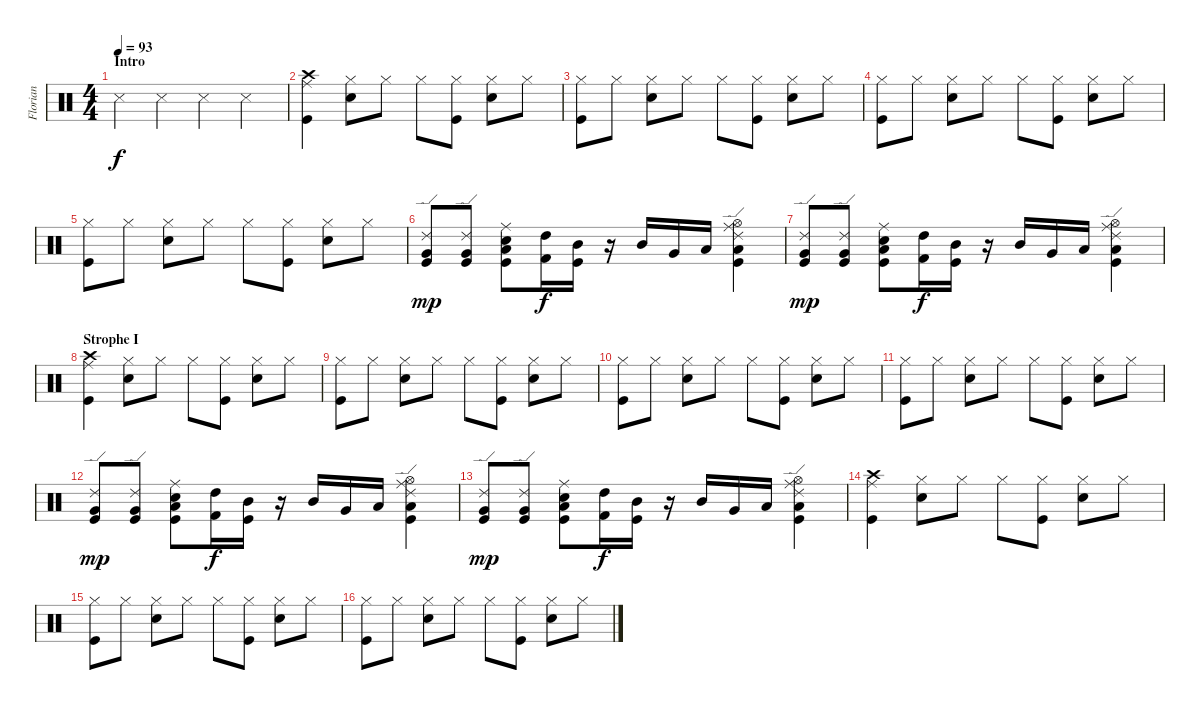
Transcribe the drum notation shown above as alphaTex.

\track ("Florian" "Florian") {instrument percussion}
\staff {score}
\articulation defaults
\ts (4 4)
\section ("" "Intro")
\tempo 93
\clef neutral
\ks c "Snare (side stick) 3".4{dy f volume 12} "Snare (side stick) 3".4 "Snare (side stick) 3".4 "Snare (side stick) 3".4
|
("Ride (middle)" "Crash high (hit)" "Kick (hit)").4 ("Hi-Hat (closed)" "Snare (hit) 2").8 "Hi-Hat (closed)".8 "Hi-Hat (closed)".8 ("Hi-Hat (closed)" "Kick (hit)").8 ("Hi-Hat (closed)" "Snare (hit) 2").8 "Hi-Hat (closed)".8 |
("Hi-Hat (closed)" "Kick (hit)").8 "Hi-Hat (closed)".8 ("Hi-Hat (closed)" "Snare (hit) 2").8 "Hi-Hat (closed)".8 "Hi-Hat (closed)".8 ("Hi-Hat (closed)" "Kick (hit)").8 ("Hi-Hat (closed)" "Snare (hit) 2").8 "Hi-Hat (closed)".8 |
("Hi-Hat (closed)" "Kick (hit)").8 "Hi-Hat (closed)".8 ("Hi-Hat (closed)" "Snare (hit) 2").8 "Hi-Hat (closed)".8 "Hi-Hat (closed)".8 ("Hi-Hat (closed)" "Kick (hit)").8 ("Hi-Hat (closed)" "Snare (hit) 2").8 "Hi-Hat (closed)".8 |
("Hi-Hat (closed)" "Kick (hit)").8 "Hi-Hat (closed)".8 ("Hi-Hat (closed)" "Snare (hit) 2").8 "Hi-Hat (closed)".8 "Hi-Hat (closed)".8 ("Hi-Hat (closed)" "Kick (hit)").8 ("Hi-Hat (closed)" "Snare (hit) 2").8 "Hi-Hat (closed)".8 |
("Ride (edge) 2" "Kick (hit)" "Very Low Tom (hit)").8{dy mp} ("Ride (edge) 2" "Kick (hit)" "Very Low Tom (hit)").8 ("Ride (middle)" "Snare (hit) 2" "Kick (hit)" "Low Tom (hit)").8 ("Kick (hit) 2" "High Tom (hit)").16{dy f} ("Kick (hit)" "Mid Tom (hit)").16 r.16 "Mid Tom (hit)".16 "Very Low Tom (hit)".16 "Low Tom (hit)".16 ("Ride (edge) 2" "Ride (middle)" "Hi-Hat (open)" "Low Tom (hit)" "Kick (hit)").4 |
("Ride (edge) 2" "Kick (hit)" "Very Low Tom (hit)").8{dy mp} ("Ride (edge) 2" "Kick (hit)" "Very Low Tom (hit)").8 ("Ride (middle)" "Snare (hit) 2" "Kick (hit)" "Low Tom (hit)").8 ("Kick (hit) 2" "High Tom (hit)").16{dy f} ("Kick (hit)" "Mid Tom (hit)").16 r.16 "Mid Tom (hit)".16 "Very Low Tom (hit)".16 "Low Tom (hit)".16 ("Ride (edge) 2" "Ride (middle)" "Hi-Hat (open)" "Low Tom (hit)" "Kick (hit)").4 |
\section ("" "Strophe I")
("Ride (middle)" "Crash high (hit)" "Kick (hit)").4 ("Hi-Hat (closed)" "Snare (hit) 2").8 "Hi-Hat (closed)".8 "Hi-Hat (closed)".8 ("Hi-Hat (closed)" "Kick (hit)").8 ("Hi-Hat (closed)" "Snare (hit) 2").8 "Hi-Hat (closed)".8 |
("Hi-Hat (closed)" "Kick (hit)").8 "Hi-Hat (closed)".8 ("Hi-Hat (closed)" "Snare (hit) 2").8 "Hi-Hat (closed)".8 "Hi-Hat (closed)".8 ("Hi-Hat (closed)" "Kick (hit)").8 ("Hi-Hat (closed)" "Snare (hit) 2").8 "Hi-Hat (closed)".8 |
("Hi-Hat (closed)" "Kick (hit)").8 "Hi-Hat (closed)".8 ("Hi-Hat (closed)" "Snare (hit) 2").8 "Hi-Hat (closed)".8 "Hi-Hat (closed)".8 ("Hi-Hat (closed)" "Kick (hit)").8 ("Hi-Hat (closed)" "Snare (hit) 2").8 "Hi-Hat (closed)".8 |
("Hi-Hat (closed)" "Kick (hit)").8 "Hi-Hat (closed)".8 ("Hi-Hat (closed)" "Snare (hit) 2").8 "Hi-Hat (closed)".8 "Hi-Hat (closed)".8 ("Hi-Hat (closed)" "Kick (hit)").8 ("Hi-Hat (closed)" "Snare (hit) 2").8 "Hi-Hat (closed)".8 |
("Ride (edge) 2" "Kick (hit)" "Very Low Tom (hit)").8{dy mp} ("Ride (edge) 2" "Kick (hit)" "Very Low Tom (hit)").8 ("Ride (middle)" "Snare (hit) 2" "Kick (hit)" "Low Tom (hit)").8 ("Kick (hit) 2" "High Tom (hit)").16{dy f} ("Kick (hit)" "Mid Tom (hit)").16 r.16 "Mid Tom (hit)".16 "Very Low Tom (hit)".16 "Low Tom (hit)".16 ("Ride (edge) 2" "Ride (middle)" "Hi-Hat (open)" "Low Tom (hit)" "Kick (hit)").4 |
("Ride (edge) 2" "Kick (hit)" "Very Low Tom (hit)").8{dy mp} ("Ride (edge) 2" "Kick (hit)" "Very Low Tom (hit)").8 ("Ride (middle)" "Snare (hit) 2" "Kick (hit)" "Low Tom (hit)").8 ("Kick (hit) 2" "High Tom (hit)").16{dy f} ("Kick (hit)" "Mid Tom (hit)").16 r.16 "Mid Tom (hit)".16 "Very Low Tom (hit)".16 "Low Tom (hit)".16 ("Ride (edge) 2" "Ride (middle)" "Hi-Hat (open)" "Low Tom (hit)" "Kick (hit)").4 |
("Ride (middle)" "Crash high (hit)" "Kick (hit)").4 ("Hi-Hat (closed)" "Snare (hit) 2").8 "Hi-Hat (closed)".8 "Hi-Hat (closed)".8 ("Hi-Hat (closed)" "Kick (hit)").8 ("Hi-Hat (closed)" "Snare (hit) 2").8 "Hi-Hat (closed)".8 |
("Hi-Hat (closed)" "Kick (hit)").8 "Hi-Hat (closed)".8 ("Hi-Hat (closed)" "Snare (hit) 2").8 "Hi-Hat (closed)".8 "Hi-Hat (closed)".8 ("Hi-Hat (closed)" "Kick (hit)").8 ("Hi-Hat (closed)" "Snare (hit) 2").8 "Hi-Hat (closed)".8 |
("Hi-Hat (closed)" "Kick (hit)").8 "Hi-Hat (closed)".8 ("Hi-Hat (closed)" "Snare (hit) 2").8 "Hi-Hat (closed)".8 "Hi-Hat (closed)".8 ("Hi-Hat (closed)" "Kick (hit)").8 ("Hi-Hat (closed)" "Snare (hit) 2").8 "Hi-Hat (closed)".8
